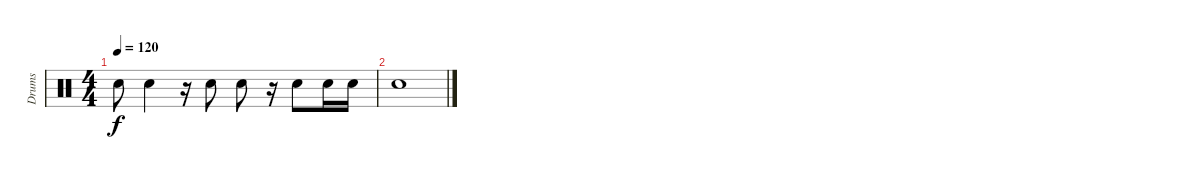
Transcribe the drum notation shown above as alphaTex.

\track ("Drums" "Drums") {instrument percussion}
\staff {score}
\articulation defaults
\ts (4 4)
\tempo 120
\clef neutral
\ks c "Snare (hit) 2".8{dy f} "Snare (hit) 2".4
r.16 "Snare (hit) 2".8 "Snare (hit) 2".8 r.16 "Snare (hit) 2".8 "Snare (hit) 2".16 "Snare (hit) 2".16 |
"Snare (hit) 2".1
